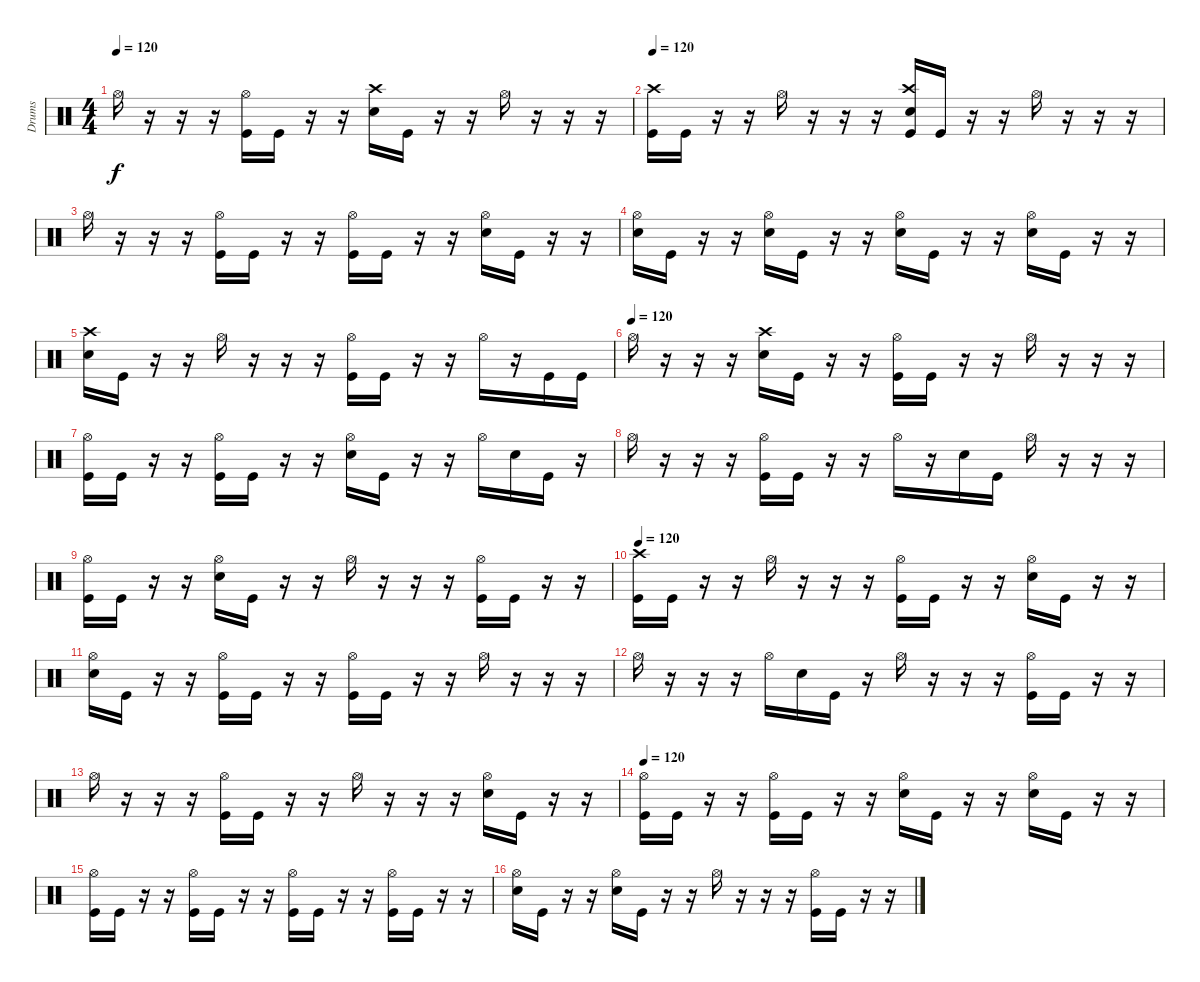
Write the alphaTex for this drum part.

\track ("Drums" "Drums") {instrument percussion}
\staff {score}
\articulation defaults
\ts (4 4)
\tempo 120
\clef neutral
\ks c "Hi-Hat (open)".16{dy f}
r.16 r.16 r.16 ("Hi-Hat (open)" "Kick (hit)").16 "Kick (hit)".16 r.16 r.16 ("Crash high (hit)" "Snare (hit) 2").16 "Kick (hit)".16 r.16 r.16 "Hi-Hat (open)".16 r.16 r.16 r.16 |
\tempo 120
("Crash high (hit)" "Kick (hit)").16 "Kick (hit)".16 r.16 r.16 "Hi-Hat (open)".16 r.16 r.16 r.16 ("Crash high (hit)" "Snare (hit) 2" "Kick (hit)").16 "Kick (hit)".16 r.16 r.16 "Hi-Hat (open)".16 r.16 r.16 r.16 |
"Hi-Hat (open)".16 r.16 r.16 r.16 ("Hi-Hat (open)" "Kick (hit)").16 "Kick (hit)".16 r.16 r.16 ("Hi-Hat (open)" "Kick (hit)").16 "Kick (hit)".16 r.16 r.16 ("Hi-Hat (open)" "Snare (hit) 2").16 "Kick (hit)".16 r.16 r.16 |
("Hi-Hat (open)" "Snare (hit) 2").16 "Kick (hit)".16 r.16 r.16 ("Hi-Hat (open)" "Snare (hit) 2").16 "Kick (hit)".16 r.16 r.16 ("Hi-Hat (open)" "Snare (hit) 2").16 "Kick (hit)".16 r.16 r.16 ("Hi-Hat (open)" "Snare (hit) 2").16 "Kick (hit)".16 r.16 r.16 |
("Crash high (hit)" "Snare (hit) 2").16 "Kick (hit)".16 r.16 r.16 "Hi-Hat (open)".16 r.16 r.16 r.16 ("Hi-Hat (open)" "Kick (hit)").16 "Kick (hit)".16 r.16 r.16 "Hi-Hat (open)".16 r.16 "Kick (hit)".16 "Kick (hit)".16 |
\tempo (120)
"Hi-Hat (open)".16 r.16 r.16 r.16 ("Crash high (hit)" "Snare (hit) 2").16 "Kick (hit)".16 r.16 r.16 ("Hi-Hat (open)" "Kick (hit)").16 "Kick (hit)".16 r.16 r.16 "Hi-Hat (open)".16 r.16 r.16 r.16 |
("Hi-Hat (open)" "Kick (hit)").16 "Kick (hit)".16 r.16 r.16 ("Hi-Hat (open)" "Kick (hit)").16 "Kick (hit)".16 r.16 r.16 ("Hi-Hat (open)" "Snare (hit) 2").16 "Kick (hit)".16 r.16 r.16 "Hi-Hat (open)".16 "Snare (hit) 2".16 "Kick (hit)".16 r.16 |
"Hi-Hat (open)".16 r.16 r.16 r.16 ("Hi-Hat (open)" "Kick (hit)").16 "Kick (hit)".16 r.16 r.16 "Hi-Hat (open)".16 r.16 "Snare (hit) 2".16 "Kick (hit)".16 "Hi-Hat (open)".16 r.16 r.16 r.16 |
("Hi-Hat (open)" "Kick (hit)").16 "Kick (hit)".16 r.16 r.16 ("Hi-Hat (open)" "Snare (hit) 2").16 "Kick (hit)".16 r.16 r.16 "Hi-Hat (open)".16 r.16 r.16 r.16 ("Hi-Hat (open)" "Kick (hit)").16 "Kick (hit)".16 r.16 r.16 |
\tempo 120
("Crash high (hit)" "Kick (hit)").16 "Kick (hit)".16 r.16 r.16 "Hi-Hat (open)".16 r.16 r.16 r.16 ("Hi-Hat (open)" "Kick (hit)").16 "Kick (hit)".16 r.16 r.16 ("Hi-Hat (open)" "Snare (hit) 2").16 "Kick (hit)".16 r.16 r.16 |
("Hi-Hat (open)" "Snare (hit) 2").16 "Kick (hit)".16 r.16 r.16 ("Hi-Hat (open)" "Kick (hit)").16 "Kick (hit)".16 r.16 r.16 ("Hi-Hat (open)" "Kick (hit)").16 "Kick (hit)".16 r.16 r.16 "Hi-Hat (open)".16 r.16 r.16 r.16 |
"Hi-Hat (open)".16 r.16 r.16 r.16 "Hi-Hat (open)".16 "Snare (hit) 2".16 "Kick (hit)".16 r.16 "Hi-Hat (open)".16 r.16 r.16 r.16 ("Hi-Hat (open)" "Kick (hit)").16 "Kick (hit)".16 r.16 r.16 |
"Hi-Hat (open)".16 r.16 r.16 r.16 ("Hi-Hat (open)" "Kick (hit)").16 "Kick (hit)".16 r.16 r.16 "Hi-Hat (open)".16 r.16 r.16 r.16 ("Hi-Hat (open)" "Snare (hit) 2").16 "Kick (hit)".16 r.16 r.16 |
\tempo 120
("Hi-Hat (open)" "Kick (hit)").16 "Kick (hit)".16 r.16 r.16 ("Hi-Hat (open)" "Kick (hit)").16 "Kick (hit)".16 r.16 r.16 ("Hi-Hat (open)" "Snare (hit) 2").16 "Kick (hit)".16 r.16 r.16 ("Hi-Hat (open)" "Snare (hit) 2").16 "Kick (hit)".16 r.16 r.16 |
("Hi-Hat (open)" "Kick (hit)").16 "Kick (hit)".16 r.16 r.16 ("Hi-Hat (open)" "Kick (hit)").16 "Kick (hit)".16 r.16 r.16 ("Hi-Hat (open)" "Kick (hit)").16 "Kick (hit)".16 r.16 r.16 ("Hi-Hat (open)" "Kick (hit)").16 "Kick (hit)".16 r.16 r.16 |
("Hi-Hat (open)" "Snare (hit) 2").16 "Kick (hit)".16 r.16 r.16 ("Hi-Hat (open)" "Snare (hit) 2").16 "Kick (hit)".16 r.16 r.16 "Hi-Hat (open)".16 r.16 r.16 r.16 ("Hi-Hat (open)" "Kick (hit)").16 "Kick (hit)".16 r.16 r.16
